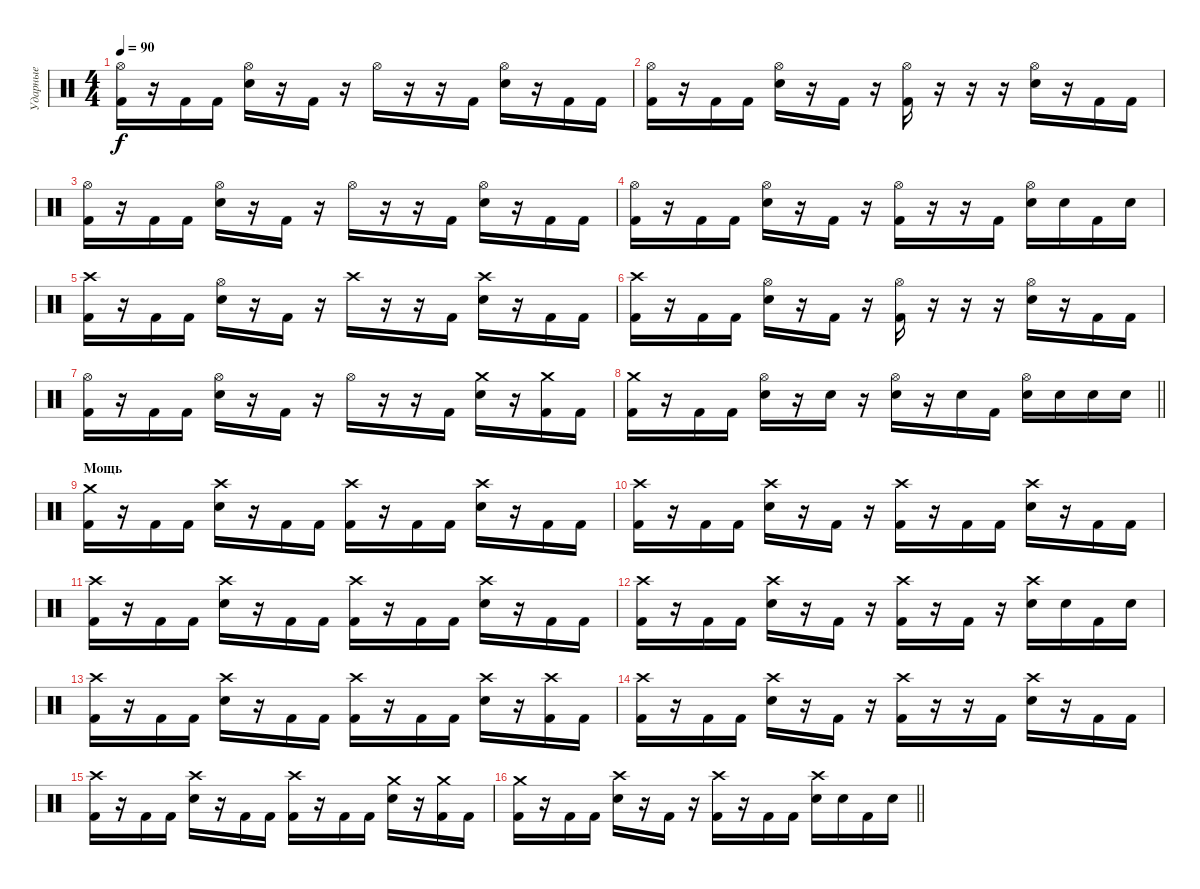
\track ("Ударные" "Ударные") {instrument percussion}
\staff {score}
\articulation defaults
\ts (4 4)
\tempo 90
\clef neutral
\ks c
("Hi-Hat (open)" "Kick (hit) 2").16{dy f} r.16 "Kick (hit) 2".16 "Kick (hit) 2".16 ("Hi-Hat (open)" "Snare (hit) 2").16 r.16 "Kick (hit) 2".16 r.16 "Hi-Hat (open)".16 r.16 r.16 "Kick (hit) 2".16 ("Hi-Hat (open)" "Snare (hit) 2").16 r.16 "Kick (hit) 2".16 "Kick (hit) 2".16 |
("Hi-Hat (open)" "Kick (hit) 2").16 r.16 "Kick (hit) 2".16 "Kick (hit) 2".16 ("Hi-Hat (open)" "Snare (hit) 2").16 r.16 "Kick (hit) 2".16 r.16 ("Hi-Hat (open)" "Kick (hit) 2").16 r.16 r.16 r.16 ("Hi-Hat (open)" "Snare (hit) 2").16 r.16 "Kick (hit) 2".16 "Kick (hit) 2".16 |
("Hi-Hat (open)" "Kick (hit) 2").16 r.16 "Kick (hit) 2".16 "Kick (hit) 2".16 ("Hi-Hat (open)" "Snare (hit) 2").16 r.16 "Kick (hit) 2".16 r.16 "Hi-Hat (open)".16 r.16 r.16 "Kick (hit) 2".16 ("Hi-Hat (open)" "Snare (hit) 2").16 r.16 "Kick (hit) 2".16 "Kick (hit) 2".16 |
("Hi-Hat (open)" "Kick (hit) 2").16 r.16 "Kick (hit) 2".16 "Kick (hit) 2".16 ("Hi-Hat (open)" "Snare (hit) 2").16 r.16 "Kick (hit) 2".16 r.16 ("Hi-Hat (open)" "Kick (hit) 2").16 r.16 r.16 "Kick (hit) 2".16 ("Hi-Hat (open)" "Snare (hit) 2").16 "Snare (hit) 2".16 "Kick (hit) 2".16 "Snare (hit) 2".16 |
("Crash high (hit)" "Kick (hit) 2").16 r.16 "Kick (hit) 2".16 "Kick (hit) 2".16 ("Hi-Hat (open)" "Snare (hit) 2").16 r.16 "Kick (hit) 2".16 r.16 "Crash high (hit)".16 r.16 r.16 "Kick (hit) 2".16 ("Crash high (hit)" "Snare (hit) 2").16 r.16 "Kick (hit) 2".16 "Kick (hit) 2".16 |
("Crash high (hit)" "Kick (hit) 2").16 r.16 "Kick (hit) 2".16 "Kick (hit) 2".16 ("Hi-Hat (open)" "Snare (hit) 2").16 r.16 "Kick (hit) 2".16 r.16 ("Hi-Hat (open)" "Kick (hit) 2").16 r.16 r.16 r.16 ("Hi-Hat (open)" "Snare (hit) 2").16 r.16 "Kick (hit) 2".16 "Kick (hit) 2".16 |
("Hi-Hat (open)" "Kick (hit) 2").16 r.16 "Kick (hit) 2".16 "Kick (hit) 2".16 ("Hi-Hat (open)" "Snare (hit) 2").16 r.16 "Kick (hit) 2".16 r.16 "Hi-Hat (open)".16 r.16 r.16 "Kick (hit) 2".16 ("Crash medium (hit)" "Snare (hit) 2").16 r.16 ("Crash medium (hit)" "Kick (hit) 2").16 "Kick (hit) 2".16 |
\barLineRight lightlight
("Crash medium (hit)" "Kick (hit) 2").16 r.16 "Kick (hit) 2".16 "Kick (hit) 2".16 ("Hi-Hat (open)" "Snare (hit) 2").16 r.16 "Snare (hit) 2".16 r.16 ("Hi-Hat (open)" "Snare (hit) 2").16 r.16 "Snare (hit) 2".16 "Kick (hit) 2".16 ("Hi-Hat (open)" "Snare (hit) 2").16 "Snare (hit) 2".16 "Snare (hit) 2".16 "Snare (hit) 2".16 |
\section ("" "Мощь")
("Crash medium (hit)" "Kick (hit) 2").16 r.16 "Kick (hit) 2".16 "Kick (hit) 2".16 ("Crash high (hit)" "Snare (hit) 2").16 r.16 "Kick (hit) 2".16 "Kick (hit) 2".16 ("Crash high (hit)" "Kick (hit) 2").16 r.16 "Kick (hit) 2".16 "Kick (hit) 2".16 ("Crash high (hit)" "Snare (hit) 2").16 r.16 "Kick (hit) 2".16 "Kick (hit) 2".16 |
("Crash high (hit)" "Kick (hit) 2").16 r.16 "Kick (hit) 2".16 "Kick (hit) 2".16 ("Crash high (hit)" "Snare (hit) 2").16 r.16 "Kick (hit) 2".16 r.16 ("Crash high (hit)" "Kick (hit) 2").16 r.16 "Kick (hit) 2".16 "Kick (hit) 2".16 ("Crash high (hit)" "Snare (hit) 2").16 r.16 "Kick (hit) 2".16 "Kick (hit) 2".16 |
("Crash high (hit)" "Kick (hit) 2").16 r.16 "Kick (hit) 2".16 "Kick (hit) 2".16 ("Crash high (hit)" "Snare (hit) 2").16 r.16 "Kick (hit) 2".16 "Kick (hit) 2".16 ("Crash high (hit)" "Kick (hit) 2").16 r.16 "Kick (hit) 2".16 "Kick (hit) 2".16 ("Crash high (hit)" "Snare (hit) 2").16 r.16 "Kick (hit) 2".16 "Kick (hit) 2".16 |
("Crash high (hit)" "Kick (hit) 2").16 r.16 "Kick (hit) 2".16 "Kick (hit) 2".16 ("Crash high (hit)" "Snare (hit) 2").16 r.16 "Kick (hit) 2".16 r.16 ("Crash high (hit)" "Kick (hit) 2").16 r.16 "Kick (hit) 2".16 r.16 ("Crash high (hit)" "Snare (hit) 2").16 "Snare (hit) 2".16 "Kick (hit) 2".16 "Snare (hit) 2".16 |
("Crash high (hit)" "Kick (hit) 2").16 r.16 "Kick (hit) 2".16 "Kick (hit) 2".16 ("Crash high (hit)" "Snare (hit) 2").16 r.16 "Kick (hit) 2".16 "Kick (hit) 2".16 ("Crash high (hit)" "Kick (hit) 2").16 r.16 "Kick (hit) 2".16 "Kick (hit) 2".16 ("Crash high (hit)" "Snare (hit) 2").16 r.16 ("Crash high (hit)" "Kick (hit) 2").16 "Kick (hit) 2".16 |
("Crash high (hit)" "Kick (hit) 2").16 r.16 "Kick (hit) 2".16 "Kick (hit) 2".16 ("Crash high (hit)" "Snare (hit) 2").16 r.16 "Kick (hit) 2".16 r.16 ("Crash high (hit)" "Kick (hit) 2").16 r.16 r.16 "Kick (hit) 2".16 ("Crash high (hit)" "Snare (hit) 2").16 r.16 "Kick (hit) 2".16 "Kick (hit) 2".16 |
("Crash high (hit)" "Kick (hit) 2").16 r.16 "Kick (hit) 2".16 "Kick (hit) 2".16 ("Crash high (hit)" "Snare (hit) 2").16 r.16 "Kick (hit) 2".16 "Kick (hit) 2".16 ("Crash high (hit)" "Kick (hit) 2").16 r.16 "Kick (hit) 2".16 "Kick (hit) 2".16 ("Crash medium (hit)" "Snare (hit) 2").16 r.16 ("Crash medium (hit)" "Kick (hit) 2").16 "Kick (hit) 2".16 |
\barLineRight lightlight
("Crash medium (hit)" "Kick (hit) 2").16 r.16 "Kick (hit) 2".16 "Kick (hit) 2".16 ("Crash high (hit)" "Snare (hit) 2").16 r.16 "Kick (hit) 2".16 r.16 ("Crash high (hit)" "Kick (hit) 2").16 r.16 "Kick (hit) 2".16 "Kick (hit) 2".16 ("Crash high (hit)" "Snare (hit) 2").16 "Snare (hit) 2".16 "Kick (hit) 2".16 "Snare (hit) 2".16
